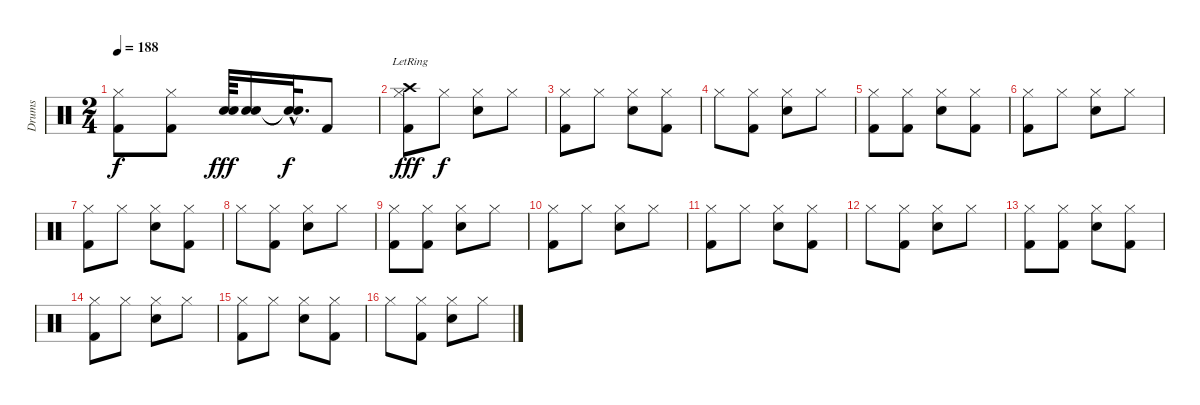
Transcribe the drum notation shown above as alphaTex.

\track ("Drums" "Drums") {instrument percussion}
\staff {score}
\articulation defaults
\ts (2 4)
\tempo 188
\clef neutral
\ks c
("Hi-Hat (closed)" "Kick (hit) 2").8{dy f} ("Hi-Hat (closed)" "Kick (hit) 2").8 ("Snare (hit) 2" "Snare (hit) 2").64{dy fff} ("Snare (hit) 2" "Snare (hit) 2").16 ("Snare (hit)"{hac t} "Snare (hit)"{hac t}).32{d dy f} "Kick (hit) 2".8 |
("Crash high (hit)"{lr} "Hi-Hat (closed)" "Kick (hit) 2").8{dy fff} "Hi-Hat (closed)".8{dy f} ("Hi-Hat (closed)" "Snare (hit) 2").8 "Hi-Hat (closed)".8 |
("Hi-Hat (closed)" "Kick (hit) 2").8 "Hi-Hat (closed)".8 ("Hi-Hat (closed)" "Snare (hit) 2").8 ("Hi-Hat (closed)" "Kick (hit) 2").8 |
"Hi-Hat (closed)".8 ("Hi-Hat (closed)" "Kick (hit) 2").8 ("Hi-Hat (closed)" "Snare (hit) 2").8 "Hi-Hat (closed)".8 |
("Hi-Hat (closed)" "Kick (hit) 2").8 ("Hi-Hat (closed)" "Kick (hit) 2").8 ("Hi-Hat (closed)" "Snare (hit) 2").8 ("Hi-Hat (closed)" "Kick (hit) 2").8 |
("Hi-Hat (closed)" "Kick (hit) 2").8 "Hi-Hat (closed)".8 ("Hi-Hat (closed)" "Snare (hit) 2").8 "Hi-Hat (closed)".8 |
("Hi-Hat (closed)" "Kick (hit) 2").8 "Hi-Hat (closed)".8 ("Hi-Hat (closed)" "Snare (hit) 2").8 ("Hi-Hat (closed)" "Kick (hit) 2").8 |
"Hi-Hat (closed)".8 ("Hi-Hat (closed)" "Kick (hit) 2").8 ("Hi-Hat (closed)" "Snare (hit) 2").8 "Hi-Hat (closed)".8 |
("Hi-Hat (closed)" "Kick (hit) 2").8 ("Hi-Hat (closed)" "Kick (hit) 2").8 ("Hi-Hat (closed)" "Snare (hit) 2").8 "Hi-Hat (closed)".8 |
("Hi-Hat (closed)" "Kick (hit) 2").8 "Hi-Hat (closed)".8 ("Hi-Hat (closed)" "Snare (hit) 2").8 "Hi-Hat (closed)".8 |
("Hi-Hat (closed)" "Kick (hit) 2").8 "Hi-Hat (closed)".8 ("Hi-Hat (closed)" "Snare (hit) 2").8 ("Hi-Hat (closed)" "Kick (hit) 2").8 |
"Hi-Hat (closed)".8 ("Hi-Hat (closed)" "Kick (hit) 2").8 ("Hi-Hat (closed)" "Snare (hit) 2").8 "Hi-Hat (closed)".8 |
("Hi-Hat (closed)" "Kick (hit) 2").8 ("Hi-Hat (closed)" "Kick (hit) 2").8 ("Hi-Hat (closed)" "Snare (hit) 2").8 ("Hi-Hat (closed)" "Kick (hit) 2").8 |
("Hi-Hat (closed)" "Kick (hit) 2").8 "Hi-Hat (closed)".8 ("Hi-Hat (closed)" "Snare (hit) 2").8 "Hi-Hat (closed)".8 |
("Hi-Hat (closed)" "Kick (hit) 2").8 "Hi-Hat (closed)".8 ("Hi-Hat (closed)" "Snare (hit) 2").8 ("Hi-Hat (closed)" "Kick (hit) 2").8 |
"Hi-Hat (closed)".8 ("Hi-Hat (closed)" "Kick (hit) 2").8 ("Hi-Hat (closed)" "Snare (hit) 2").8 "Hi-Hat (closed)".8
